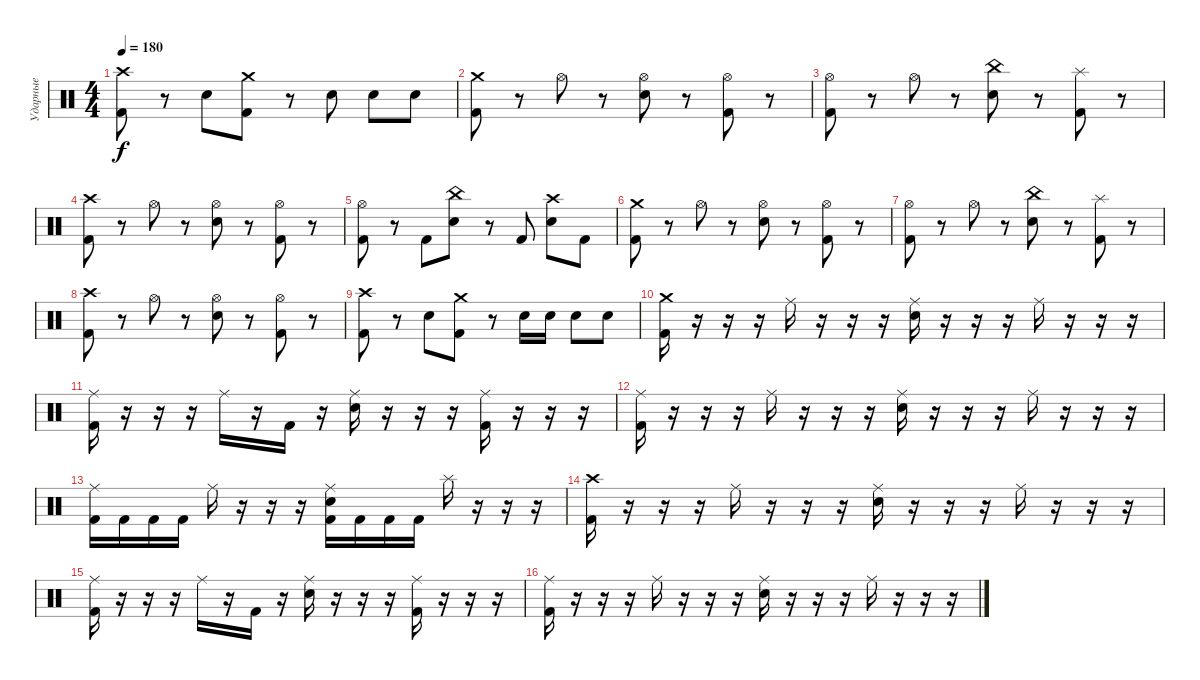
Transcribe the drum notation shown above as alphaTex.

\track ("Ударные" "Ударные") {instrument percussion}
\staff {score}
\articulation defaults
\ts (4 4)
\tempo 180
\clef neutral
\ks c
("Kick (hit) 2" "Crash high (hit)").8{dy f} r.8 "Electric Snare (hit)".8 ("Kick (hit) 2" "Crash medium (hit)").8 r.8 "Electric Snare (hit)".8 "Electric Snare (hit)".8 "Electric Snare (hit)".8 |
("Kick (hit) 2" "Crash medium (hit)").8 r.8 "Hi-Hat (open)".8 r.8 ("Electric Snare (hit)" "Hi-Hat (open)").8 r.8 ("Kick (hit) 2" "Hi-Hat (open)").8 r.8 |
("Kick (hit) 2" "Hi-Hat (open)").8 r.8 "Hi-Hat (open)".8 r.8 ("Electric Snare (hit)" "China (hit)").8 r.8 ("Kick (hit) 2" "Splash (hit)").8 r.8 |
("Kick (hit) 2" "Crash high (hit)").8 r.8 "Hi-Hat (open)".8 r.8 ("Electric Snare (hit)" "Hi-Hat (open)").8 r.8 ("Kick (hit) 2" "Hi-Hat (open)").8 r.8 |
("Kick (hit) 2" "Hi-Hat (open)").8 r.8 "Kick (hit) 2".8 ("Electric Snare (hit)" "China (hit)").8 r.8 "Kick (hit) 2".8 ("Electric Snare (hit)" "Crash high (hit)").8 "Kick (hit) 2".8 |
("Kick (hit) 2" "Crash medium (hit)").8 r.8 "Hi-Hat (open)".8 r.8 ("Electric Snare (hit)" "Hi-Hat (open)").8 r.8 ("Kick (hit) 2" "Hi-Hat (open)").8 r.8 |
("Kick (hit) 2" "Hi-Hat (open)").8 r.8 "Hi-Hat (open)".8 r.8 ("Electric Snare (hit)" "China (hit)").8 r.8 ("Kick (hit) 2" "Splash (hit)").8 r.8 |
("Kick (hit) 2" "Crash high (hit)").8 r.8 "Hi-Hat (open)".8 r.8 ("Electric Snare (hit)" "Hi-Hat (open)").8 r.8 ("Kick (hit) 2" "Hi-Hat (open)").8 r.8 |
("Kick (hit) 2" "Crash high (hit)").8 r.8 "Electric Snare (hit)".8 ("Kick (hit) 2" "Crash medium (hit)").8 r.8 "Electric Snare (hit)".16 "Electric Snare (hit)".16 "Electric Snare (hit)".8 "Electric Snare (hit)".8 |
("Kick (hit) 2" "Crash medium (hit)").16 r.16 r.16 r.16 "Ride (middle)".16 r.16 r.16 r.16 ("Electric Snare (hit)" "Ride (middle)").16 r.16 r.16 r.16 "Ride (middle)".16 r.16 r.16 r.16 |
("Kick (hit) 2" "Ride (middle)").16 r.16 r.16 r.16 "Ride (middle)".16 r.16 "Kick (hit) 2".16 r.16 ("Electric Snare (hit)" "Ride (middle)").16 r.16 r.16 r.16 ("Kick (hit) 2" "Ride (middle)").16 r.16 r.16 r.16 |
("Kick (hit) 2" "Ride (middle)").16 r.16 r.16 r.16 "Ride (middle)".16 r.16 r.16 r.16 ("Electric Snare (hit)" "Ride (middle)").16 r.16 r.16 r.16 "Ride (middle)".16 r.16 r.16 r.16 |
("Kick (hit) 2" "Ride (middle)").16 "Kick (hit) 2".16 "Kick (hit) 2".16 "Kick (hit) 2".16 "Ride (middle)".16 r.16 r.16 r.16 ("Kick (hit) 2" "Electric Snare (hit)" "Ride (middle)").16 "Kick (hit) 2".16 "Kick (hit) 2".16 "Kick (hit) 2".16 "Splash (hit)".16 r.16 r.16 r.16 |
("Kick (hit) 2" "Crash high (hit)").16 r.16 r.16 r.16 "Ride (middle)".16 r.16 r.16 r.16 ("Electric Snare (hit)" "Ride (middle)").16 r.16 r.16 r.16 "Ride (middle)".16 r.16 r.16 r.16 |
("Kick (hit) 2" "Ride (middle)").16 r.16 r.16 r.16 "Ride (middle)".16 r.16 "Kick (hit) 2".16 r.16 ("Electric Snare (hit)" "Ride (middle)").16 r.16 r.16 r.16 ("Kick (hit) 2" "Ride (middle)").16 r.16 r.16 r.16 |
("Kick (hit) 2" "Ride (middle)").16 r.16 r.16 r.16 "Ride (middle)".16 r.16 r.16 r.16 ("Electric Snare (hit)" "Ride (middle)").16 r.16 r.16 r.16 "Ride (middle)".16 r.16 r.16 r.16
